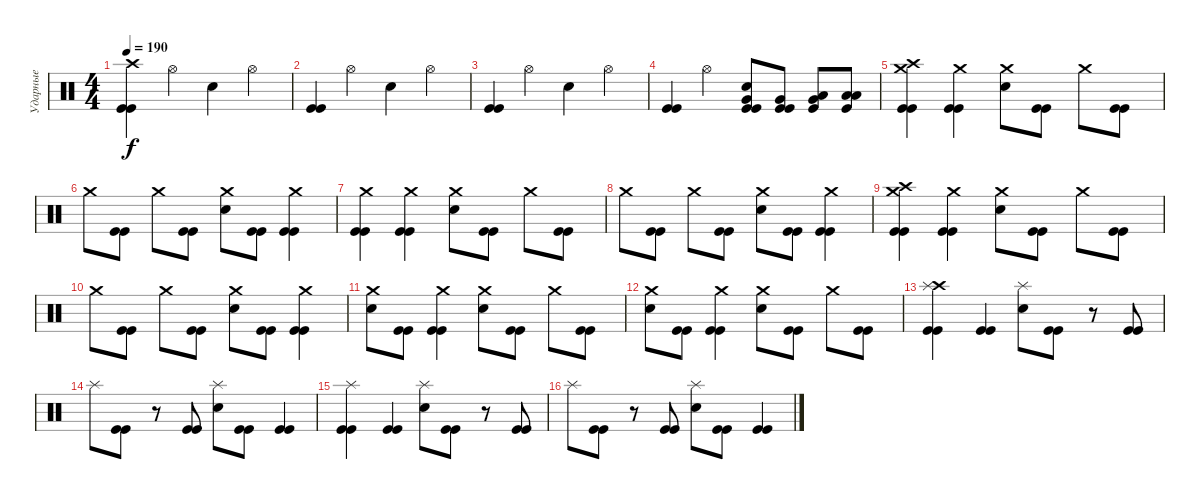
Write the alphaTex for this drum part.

\track ("Ударные" "Ударные") {instrument percussion}
\staff {score}
\articulation defaults
\ts (4 4)
\tempo 190
\clef neutral
\ks c
("Crash high (hit)" "Kick (hit)" "Kick (hit)").4{dy f} "Hi-Hat (open)".4 "Electric Snare (hit)".4 "Hi-Hat (open)".4 |
("Kick (hit)" "Kick (hit)").4 "Hi-Hat (open)".4 "Electric Snare (hit)".4 "Hi-Hat (open)".4 |
("Kick (hit)" "Kick (hit)").4 "Hi-Hat (open)".4 "Electric Snare (hit)".4 "Hi-Hat (open)".4 |
("Kick (hit)" "Kick (hit)").4 "Hi-Hat (open)".4 ("Electric Snare (hit)" "Very Low Tom (hit)" "Kick (hit)" "Kick (hit)").8 ("Very Low Tom (hit)" "Kick (hit)" "Kick (hit)").8 ("Very Low Tom (hit)" "Low Floor Tom (hit)" "Kick (hit)").8 ("Low Floor Tom (hit)" "Low Floor Tom (hit)" "Kick (hit)").8 |
("Crash high (hit)" "Crash medium (hit)" "Kick (hit)" "Kick (hit)").4 ("Crash medium (hit)" "Kick (hit)" "Kick (hit)").4 ("Crash medium (hit)" "Electric Snare (hit)").8 ("Kick (hit)" "Kick (hit)").8 "Crash medium (hit)".8 ("Kick (hit)" "Kick (hit)").8 |
"Crash medium (hit)".8 ("Kick (hit)" "Kick (hit)").8 "Crash medium (hit)".8 ("Kick (hit)" "Kick (hit)").8 ("Crash medium (hit)" "Electric Snare (hit)").8 ("Kick (hit)" "Kick (hit)").8 ("Crash medium (hit)" "Kick (hit)" "Kick (hit)").4 |
("Crash medium (hit)" "Kick (hit)" "Kick (hit)").4 ("Crash medium (hit)" "Kick (hit)" "Kick (hit)").4 ("Crash medium (hit)" "Electric Snare (hit)").8 ("Kick (hit)" "Kick (hit)").8 "Crash medium (hit)".8 ("Kick (hit)" "Kick (hit)").8 |
"Crash medium (hit)".8 ("Kick (hit)" "Kick (hit)").8 "Crash medium (hit)".8 ("Kick (hit)" "Kick (hit)").8 ("Crash medium (hit)" "Electric Snare (hit)").8 ("Kick (hit)" "Kick (hit)").8 ("Crash medium (hit)" "Kick (hit)" "Kick (hit)").4 |
("Crash high (hit)" "Crash medium (hit)" "Kick (hit)" "Kick (hit)").4 ("Crash medium (hit)" "Kick (hit)" "Kick (hit)").4 ("Crash medium (hit)" "Electric Snare (hit)").8 ("Kick (hit)" "Kick (hit)").8 "Crash medium (hit)".8 ("Kick (hit)" "Kick (hit)").8 |
"Crash medium (hit)".8 ("Kick (hit)" "Kick (hit)").8 "Crash medium (hit)".8 ("Kick (hit)" "Kick (hit)").8 ("Crash medium (hit)" "Electric Snare (hit)").8 ("Kick (hit)" "Kick (hit)").8 ("Crash medium (hit)" "Kick (hit)" "Kick (hit)").4 |
("Crash medium (hit)" "Electric Snare (hit)").8 ("Kick (hit)" "Kick (hit)").8 ("Crash medium (hit)" "Kick (hit)" "Kick (hit)").4 ("Crash medium (hit)" "Electric Snare (hit)").8 ("Kick (hit)" "Kick (hit)").8 "Crash medium (hit)".8 ("Kick (hit)" "Kick (hit)").8 |
("Crash medium (hit)" "Electric Snare (hit)").8 ("Kick (hit)" "Kick (hit)").8 ("Crash medium (hit)" "Kick (hit)" "Kick (hit)").4 ("Crash medium (hit)" "Electric Snare (hit)").8 ("Kick (hit)" "Kick (hit)").8 "Crash medium (hit)".8 ("Kick (hit)" "Kick (hit)").8 |
("Crash high (hit)" "Splash (hit)" "Kick (hit)" "Kick (hit)").4 ("Kick (hit)" "Kick (hit)").4 ("Splash (hit)" "Electric Snare (hit)").8 ("Kick (hit)" "Kick (hit)").8 r.8 ("Kick (hit)" "Kick (hit)").8 |
"Splash (hit)".8 ("Kick (hit)" "Kick (hit)").8 r.8 ("Kick (hit)" "Kick (hit)").8 ("Splash (hit)" "Electric Snare (hit)").8 ("Kick (hit)" "Kick (hit)").8 ("Kick (hit)" "Kick (hit)").4 |
("Splash (hit)" "Kick (hit)" "Kick (hit)").4 ("Kick (hit)" "Kick (hit)").4 ("Splash (hit)" "Electric Snare (hit)").8 ("Kick (hit)" "Kick (hit)").8 r.8 ("Kick (hit)" "Kick (hit)").8 |
"Splash (hit)".8 ("Kick (hit)" "Kick (hit)").8 r.8 ("Kick (hit)" "Kick (hit)").8 ("Splash (hit)" "Electric Snare (hit)").8 ("Kick (hit)" "Kick (hit)").8 ("Kick (hit)" "Kick (hit)").4
